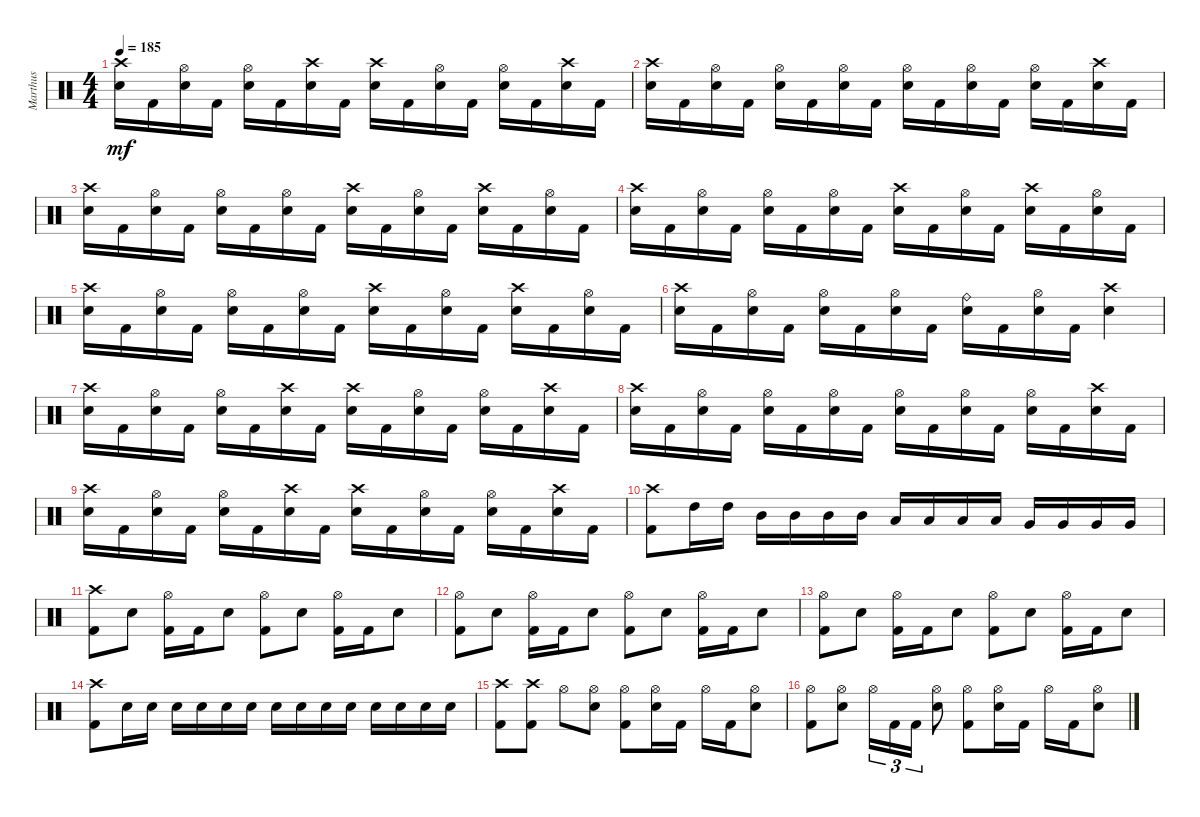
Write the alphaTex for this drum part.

\track ("Marthus" "Marthus") {instrument percussion}
\staff {score}
\articulation defaults
\ts (4 4)
\tempo 185
\clef neutral
\ks c
("Crash high (hit)" "Electric Snare (hit)").16{dy mf} "Kick (hit) 2".16 ("Hi-Hat (open)" "Electric Snare (hit)").16 "Kick (hit) 2".16 ("Hi-Hat (open)" "Electric Snare (hit)").16 "Kick (hit) 2".16 ("Crash high (hit)" "Electric Snare (hit)").16 "Kick (hit) 2".16 ("Crash high (hit)" "Electric Snare (hit)").16 "Kick (hit) 2".16 ("Hi-Hat (open)" "Electric Snare (hit)").16 "Kick (hit) 2".16 ("Hi-Hat (open)" "Electric Snare (hit)").16 "Kick (hit) 2".16 ("Crash high (hit)" "Electric Snare (hit)").16 "Kick (hit) 2".16 |
("Crash high (hit)" "Electric Snare (hit)").16 "Kick (hit) 2".16 ("Hi-Hat (open)" "Electric Snare (hit)").16 "Kick (hit) 2".16 ("Hi-Hat (open)" "Electric Snare (hit)").16 "Kick (hit) 2".16 ("Hi-Hat (open)" "Electric Snare (hit)").16 "Kick (hit) 2".16 ("Hi-Hat (open)" "Electric Snare (hit)").16 "Kick (hit) 2".16 ("Hi-Hat (open)" "Electric Snare (hit)").16 "Kick (hit) 2".16 ("Hi-Hat (open)" "Electric Snare (hit)").16 "Kick (hit) 2".16 ("Crash high (hit)" "Electric Snare (hit)").16 "Kick (hit) 2".16 |
("Crash high (hit)" "Electric Snare (hit)").16 "Kick (hit) 2".16 ("Hi-Hat (open)" "Electric Snare (hit)").16 "Kick (hit) 2".16 ("Hi-Hat (open)" "Electric Snare (hit)").16 "Kick (hit) 2".16 ("Hi-Hat (open)" "Electric Snare (hit)").16 "Kick (hit) 2".16 ("Crash high (hit)" "Electric Snare (hit)").16 "Kick (hit) 2".16 ("Hi-Hat (open)" "Electric Snare (hit)").16 "Kick (hit) 2".16 ("Crash high (hit)" "Electric Snare (hit)").16 "Kick (hit) 2".16 ("Hi-Hat (open)" "Electric Snare (hit)").16 "Kick (hit) 2".16 |
("Crash high (hit)" "Electric Snare (hit)").16 "Kick (hit) 2".16 ("Hi-Hat (open)" "Electric Snare (hit)").16 "Kick (hit) 2".16 ("Hi-Hat (open)" "Electric Snare (hit)").16 "Kick (hit) 2".16 ("Hi-Hat (open)" "Electric Snare (hit)").16 "Kick (hit) 2".16 ("Crash high (hit)" "Electric Snare (hit)").16 "Kick (hit) 2".16 ("Hi-Hat (open)" "Electric Snare (hit)").16 "Kick (hit) 2".16 ("Crash high (hit)" "Electric Snare (hit)").16 "Kick (hit) 2".16 ("Hi-Hat (open)" "Electric Snare (hit)").16 "Kick (hit) 2".16 |
("Crash high (hit)" "Electric Snare (hit)").16 "Kick (hit) 2".16 ("Hi-Hat (open)" "Electric Snare (hit)").16 "Kick (hit) 2".16 ("Hi-Hat (open)" "Electric Snare (hit)").16 "Kick (hit) 2".16 ("Hi-Hat (open)" "Electric Snare (hit)").16 "Kick (hit) 2".16 ("Crash high (hit)" "Electric Snare (hit)").16 "Kick (hit) 2".16 ("Hi-Hat (open)" "Electric Snare (hit)").16 "Kick (hit) 2".16 ("Crash high (hit)" "Electric Snare (hit)").16 "Kick (hit) 2".16 ("Hi-Hat (open)" "Electric Snare (hit)").16 "Kick (hit) 2".16 |
("Crash high (hit)" "Electric Snare (hit)").16 "Kick (hit) 2".16 ("Hi-Hat (open)" "Electric Snare (hit)").16 "Kick (hit) 2".16 ("Hi-Hat (open)" "Electric Snare (hit)").16 "Kick (hit) 2".16 ("Hi-Hat (open)" "Electric Snare (hit)").16 "Kick (hit) 2".16 ("Ride (bell)" "Electric Snare (hit)").16 "Kick (hit) 2".16 ("Hi-Hat (open)" "Electric Snare (hit)").16 "Kick (hit) 2".16 ("Crash high (hit)" "Electric Snare (hit)").4 |
("Crash high (hit)" "Electric Snare (hit)").16 "Kick (hit) 2".16 ("Hi-Hat (open)" "Electric Snare (hit)").16 "Kick (hit) 2".16 ("Hi-Hat (open)" "Electric Snare (hit)").16 "Kick (hit) 2".16 ("Crash high (hit)" "Electric Snare (hit)").16 "Kick (hit) 2".16 ("Crash high (hit)" "Electric Snare (hit)").16 "Kick (hit) 2".16 ("Hi-Hat (open)" "Electric Snare (hit)").16 "Kick (hit) 2".16 ("Hi-Hat (open)" "Electric Snare (hit)").16 "Kick (hit) 2".16 ("Crash high (hit)" "Electric Snare (hit)").16 "Kick (hit) 2".16 |
("Crash high (hit)" "Electric Snare (hit)").16 "Kick (hit) 2".16 ("Hi-Hat (open)" "Electric Snare (hit)").16 "Kick (hit) 2".16 ("Hi-Hat (open)" "Electric Snare (hit)").16 "Kick (hit) 2".16 ("Hi-Hat (open)" "Electric Snare (hit)").16 "Kick (hit) 2".16 ("Hi-Hat (open)" "Electric Snare (hit)").16 "Kick (hit) 2".16 ("Hi-Hat (open)" "Electric Snare (hit)").16 "Kick (hit) 2".16 ("Hi-Hat (open)" "Electric Snare (hit)").16 "Kick (hit) 2".16 ("Crash high (hit)" "Electric Snare (hit)").16 "Kick (hit) 2".16 |
("Crash high (hit)" "Electric Snare (hit)").16 "Kick (hit) 2".16 ("Hi-Hat (open)" "Electric Snare (hit)").16 "Kick (hit) 2".16 ("Hi-Hat (open)" "Electric Snare (hit)").16 "Kick (hit) 2".16 ("Crash high (hit)" "Electric Snare (hit)").16 "Kick (hit) 2".16 ("Crash high (hit)" "Electric Snare (hit)").16 "Kick (hit) 2".16 ("Hi-Hat (open)" "Electric Snare (hit)").16 "Kick (hit) 2".16 ("Hi-Hat (open)" "Electric Snare (hit)").16 "Kick (hit) 2".16 ("Crash high (hit)" "Electric Snare (hit)").16 "Kick (hit) 2".16 |
("Crash high (hit)" "Kick (hit) 2").8 "High Tom (hit)".16 "High Tom (hit)".16 "Mid Tom (hit)".16 "Mid Tom (hit)".16 "Mid Tom (hit)".16 "Mid Tom (hit)".16 "Low Tom (hit)".16 "Low Tom (hit)".16 "Low Tom (hit)".16 "Low Tom (hit)".16 "Very Low Tom (hit)".16 "Very Low Tom (hit)".16 "Very Low Tom (hit)".16 "Very Low Tom (hit)".16 |
("Crash high (hit)" "Kick (hit) 2").8 "Electric Snare (hit)".8 ("Hi-Hat (open)" "Kick (hit) 2").16 "Kick (hit) 2".16 "Electric Snare (hit)".8 ("Hi-Hat (open)" "Kick (hit) 2").8 "Electric Snare (hit)".8 ("Hi-Hat (open)" "Kick (hit) 2").16 "Kick (hit) 2".16 "Electric Snare (hit)".8 |
("Hi-Hat (open)" "Kick (hit) 2").8 "Electric Snare (hit)".8 ("Hi-Hat (open)" "Kick (hit) 2").16 "Kick (hit) 2".16 "Electric Snare (hit)".8 ("Hi-Hat (open)" "Kick (hit) 2").8 "Electric Snare (hit)".8 ("Hi-Hat (open)" "Kick (hit) 2").16 "Kick (hit) 2".16 "Electric Snare (hit)".8 |
("Hi-Hat (open)" "Kick (hit) 2").8 "Electric Snare (hit)".8 ("Hi-Hat (open)" "Kick (hit) 2").16 "Kick (hit) 2".16 "Electric Snare (hit)".8 ("Hi-Hat (open)" "Kick (hit) 2").8 "Electric Snare (hit)".8 ("Hi-Hat (open)" "Kick (hit) 2").16 "Kick (hit) 2".16 "Electric Snare (hit)".8 |
("Crash high (hit)" "Kick (hit) 2").8 "Electric Snare (hit)".16 "Electric Snare (hit)".16 "Electric Snare (hit)".16 "Electric Snare (hit)".16 "Electric Snare (hit)".16 "Electric Snare (hit)".16 "Electric Snare (hit)".16 "Electric Snare (hit)".16 "Electric Snare (hit)".16 "Electric Snare (hit)".16 "Electric Snare (hit)".16 "Electric Snare (hit)".16 "Electric Snare (hit)".16 "Electric Snare (hit)".16 |
("Crash high (hit)" "Kick (hit) 2").8 ("Crash high (hit)" "Kick (hit) 2").8 "Hi-Hat (open)".8 ("Hi-Hat (open)" "Electric Snare (hit)").8 ("Hi-Hat (open)" "Kick (hit) 2").8 ("Hi-Hat (open)" "Electric Snare (hit)").16 "Kick (hit) 2".16 "Hi-Hat (open)".16 "Kick (hit) 2".16 ("Hi-Hat (open)" "Electric Snare (hit)").8 |
("Hi-Hat (open)" "Kick (hit) 2").8 ("Hi-Hat (open)" "Electric Snare (hit)").8 "Hi-Hat (open)".16{tu (3 2)} "Kick (hit) 2".16{tu (3 2)} "Kick (hit) 2".16{tu (3 2)} ("Hi-Hat (open)" "Electric Snare (hit)").8 ("Hi-Hat (open)" "Kick (hit) 2").8 ("Hi-Hat (open)" "Electric Snare (hit)").16 "Kick (hit) 2".16 "Hi-Hat (open)".16 "Kick (hit) 2".16 ("Hi-Hat (open)" "Electric Snare (hit)").8
